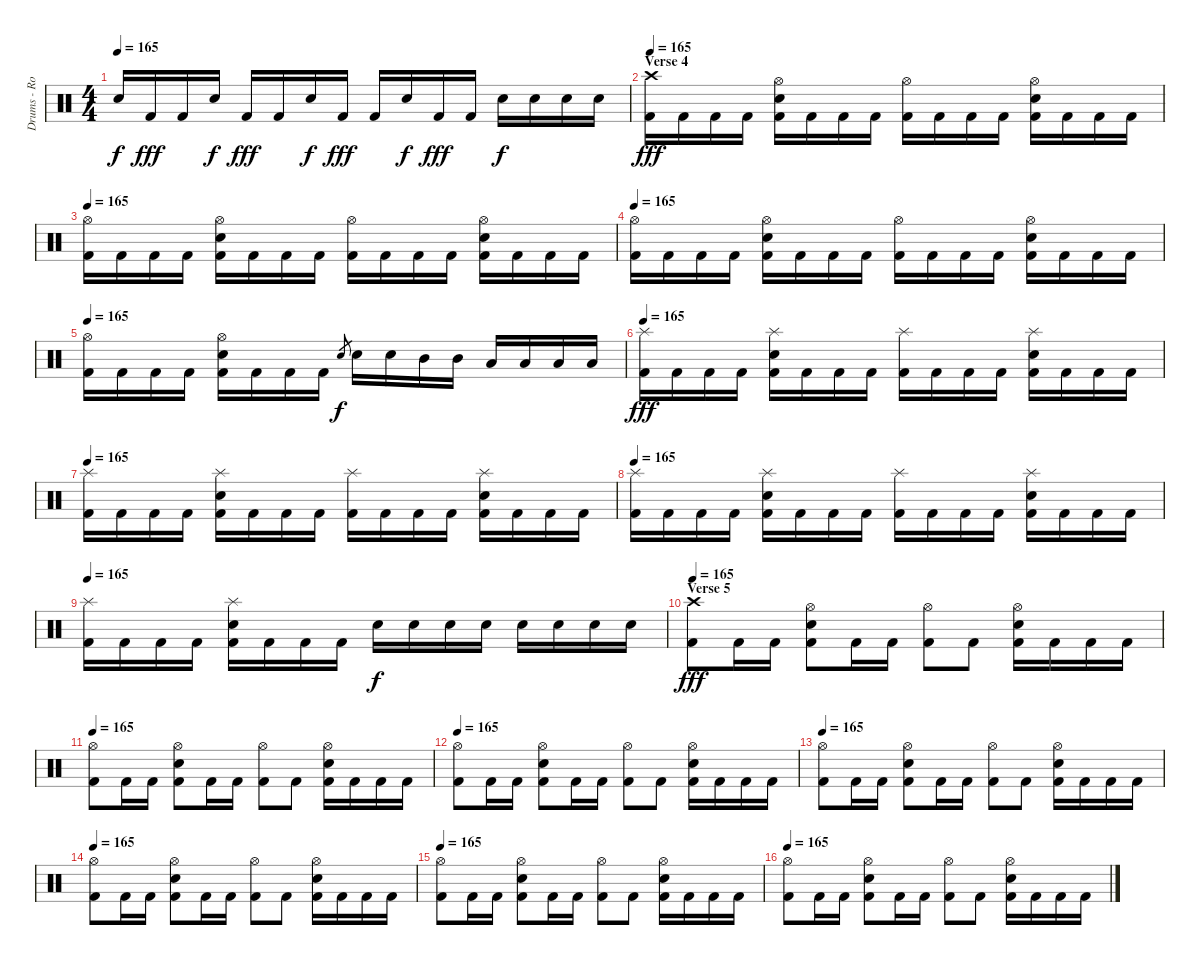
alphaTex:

\track ("Drums - Rodrigo" "Drums - Ro") {instrument percussion}
\staff {score}
\articulation defaults
\ts (4 4)
\tempo 165
\clef neutral
\ks c "Electric Snare (hit)".16{dy f} "Kick (hit) 2".16{dy fff} "Kick (hit) 2".16 "Electric Snare (hit)".16{dy f} "Kick (hit) 2".16{dy fff} "Kick (hit) 2".16 "Electric Snare (hit)".16{dy f} "Kick (hit) 2".16{dy fff} "Kick (hit) 2".16 "Electric Snare (hit)".16{dy f} "Kick (hit) 2".16{dy fff} "Kick (hit) 2".16 "Electric Snare (hit)".16{dy f} "Electric Snare (hit)".16 "Electric Snare (hit)".16 "Electric Snare (hit)".16
|
\section ("" "Verse 4")
\tempo 165
("Crash high (hit)" "Kick (hit) 2").16{dy fff} "Kick (hit) 2".16 "Kick (hit) 2".16 "Kick (hit) 2".16 ("Hi-Hat (open)" "Electric Snare (hit)" "Kick (hit) 2").16 "Kick (hit) 2".16 "Kick (hit) 2".16 "Kick (hit) 2".16 ("Hi-Hat (open)" "Kick (hit) 2").16 "Kick (hit) 2".16 "Kick (hit) 2".16 "Kick (hit) 2".16 ("Hi-Hat (open)" "Electric Snare (hit)" "Kick (hit) 2").16 "Kick (hit) 2".16 "Kick (hit) 2".16 "Kick (hit) 2".16 |
\tempo 165
("Hi-Hat (open)" "Kick (hit) 2").16 "Kick (hit) 2".16 "Kick (hit) 2".16 "Kick (hit) 2".16 ("Hi-Hat (open)" "Electric Snare (hit)" "Kick (hit) 2").16 "Kick (hit) 2".16 "Kick (hit) 2".16 "Kick (hit) 2".16 ("Hi-Hat (open)" "Kick (hit) 2").16 "Kick (hit) 2".16 "Kick (hit) 2".16 "Kick (hit) 2".16 ("Hi-Hat (open)" "Electric Snare (hit)" "Kick (hit) 2").16 "Kick (hit) 2".16 "Kick (hit) 2".16 "Kick (hit) 2".16 |
\tempo 165
("Hi-Hat (open)" "Kick (hit) 2").16 "Kick (hit) 2".16 "Kick (hit) 2".16 "Kick (hit) 2".16 ("Hi-Hat (open)" "Electric Snare (hit)" "Kick (hit) 2").16 "Kick (hit) 2".16 "Kick (hit) 2".16 "Kick (hit) 2".16 ("Hi-Hat (open)" "Kick (hit) 2").16 "Kick (hit) 2".16 "Kick (hit) 2".16 "Kick (hit) 2".16 ("Hi-Hat (open)" "Electric Snare (hit)" "Kick (hit) 2").16 "Kick (hit) 2".16 "Kick (hit) 2".16 "Kick (hit) 2".16 |
\tempo 165
("Hi-Hat (open)" "Kick (hit) 2").16 "Kick (hit) 2".16 "Kick (hit) 2".16 "Kick (hit) 2".16 ("Hi-Hat (open)" "Electric Snare (hit)" "Kick (hit) 2").16 "Kick (hit) 2".16 "Kick (hit) 2".16 "Kick (hit) 2".16 "Electric Snare (hit)".8{gr dy f} "Electric Snare (hit)".16 "Electric Snare (hit)".16 "Mid Tom (hit)".16 "Mid Tom (hit)".16 "Low Tom (hit)".16 "Low Tom (hit)".16 "Low Floor Tom (hit)".16 "Low Floor Tom (hit)".16 |
\tempo 165
("Splash (hit)" "Kick (hit) 2").16{dy fff} "Kick (hit) 2".16 "Kick (hit) 2".16 "Kick (hit) 2".16 ("Splash (hit)" "Electric Snare (hit)" "Kick (hit) 2").16 "Kick (hit) 2".16 "Kick (hit) 2".16 "Kick (hit) 2".16 ("Splash (hit)" "Kick (hit) 2").16 "Kick (hit) 2".16 "Kick (hit) 2".16 "Kick (hit) 2".16 ("Splash (hit)" "Electric Snare (hit)" "Kick (hit) 2").16 "Kick (hit) 2".16 "Kick (hit) 2".16 "Kick (hit) 2".16 |
\tempo 165
("Splash (hit)" "Kick (hit) 2").16 "Kick (hit) 2".16 "Kick (hit) 2".16 "Kick (hit) 2".16 ("Splash (hit)" "Electric Snare (hit)" "Kick (hit) 2").16 "Kick (hit) 2".16 "Kick (hit) 2".16 "Kick (hit) 2".16 ("Splash (hit)" "Kick (hit) 2").16 "Kick (hit) 2".16 "Kick (hit) 2".16 "Kick (hit) 2".16 ("Splash (hit)" "Electric Snare (hit)" "Kick (hit) 2").16 "Kick (hit) 2".16 "Kick (hit) 2".16 "Kick (hit) 2".16 |
\tempo 165
("Splash (hit)" "Kick (hit) 2").16 "Kick (hit) 2".16 "Kick (hit) 2".16 "Kick (hit) 2".16 ("Splash (hit)" "Electric Snare (hit)" "Kick (hit) 2").16 "Kick (hit) 2".16 "Kick (hit) 2".16 "Kick (hit) 2".16 ("Splash (hit)" "Kick (hit) 2").16 "Kick (hit) 2".16 "Kick (hit) 2".16 "Kick (hit) 2".16 ("Splash (hit)" "Electric Snare (hit)" "Kick (hit) 2").16 "Kick (hit) 2".16 "Kick (hit) 2".16 "Kick (hit) 2".16 |
\tempo 165
("Splash (hit)" "Kick (hit) 2").16 "Kick (hit) 2".16 "Kick (hit) 2".16 "Kick (hit) 2".16 ("Splash (hit)" "Electric Snare (hit)" "Kick (hit) 2").16 "Kick (hit) 2".16 "Kick (hit) 2".16 "Kick (hit) 2".16 "Electric Snare (hit)".16{dy f} "Electric Snare (hit)".16 "Electric Snare (hit)".16 "Electric Snare (hit)".16 "Electric Snare (hit)".16 "Electric Snare (hit)".16 "Electric Snare (hit)".16 "Electric Snare (hit)".16 |
\section ("" "Verse 5")
\tempo 165
("Crash high (hit)" "Kick (hit) 2").8{dy fff} "Kick (hit) 2".16 "Kick (hit) 2".16 ("Hi-Hat (open)" "Electric Snare (hit)" "Kick (hit) 2").8 "Kick (hit) 2".16 "Kick (hit) 2".16 ("Hi-Hat (open)" "Kick (hit) 2").8 "Kick (hit) 2".8 ("Hi-Hat (open)" "Electric Snare (hit)" "Kick (hit) 2").16 "Kick (hit) 2".16 "Kick (hit) 2".16 "Kick (hit) 2".16 |
\tempo 165
("Hi-Hat (open)" "Kick (hit) 2").8 "Kick (hit) 2".16 "Kick (hit) 2".16 ("Hi-Hat (open)" "Electric Snare (hit)" "Kick (hit) 2").8 "Kick (hit) 2".16 "Kick (hit) 2".16 ("Hi-Hat (open)" "Kick (hit) 2").8 "Kick (hit) 2".8 ("Hi-Hat (open)" "Electric Snare (hit)" "Kick (hit) 2").16 "Kick (hit) 2".16 "Kick (hit) 2".16 "Kick (hit) 2".16 |
\tempo 165
("Hi-Hat (open)" "Kick (hit) 2").8 "Kick (hit) 2".16 "Kick (hit) 2".16 ("Hi-Hat (open)" "Electric Snare (hit)" "Kick (hit) 2").8 "Kick (hit) 2".16 "Kick (hit) 2".16 ("Hi-Hat (open)" "Kick (hit) 2").8 "Kick (hit) 2".8 ("Hi-Hat (open)" "Electric Snare (hit)" "Kick (hit) 2").16 "Kick (hit) 2".16 "Kick (hit) 2".16 "Kick (hit) 2".16 |
\tempo 165
("Hi-Hat (open)" "Kick (hit) 2").8 "Kick (hit) 2".16 "Kick (hit) 2".16 ("Hi-Hat (open)" "Electric Snare (hit)" "Kick (hit) 2").8 "Kick (hit) 2".16 "Kick (hit) 2".16 ("Hi-Hat (open)" "Kick (hit) 2").8 "Kick (hit) 2".8 ("Hi-Hat (open)" "Electric Snare (hit)" "Kick (hit) 2").16 "Kick (hit) 2".16 "Kick (hit) 2".16 "Kick (hit) 2".16 |
\tempo 165
("Hi-Hat (open)" "Kick (hit) 2").8 "Kick (hit) 2".16 "Kick (hit) 2".16 ("Hi-Hat (open)" "Electric Snare (hit)" "Kick (hit) 2").8 "Kick (hit) 2".16 "Kick (hit) 2".16 ("Hi-Hat (open)" "Kick (hit) 2").8 "Kick (hit) 2".8 ("Hi-Hat (open)" "Electric Snare (hit)" "Kick (hit) 2").16 "Kick (hit) 2".16 "Kick (hit) 2".16 "Kick (hit) 2".16 |
\tempo 165
("Hi-Hat (open)" "Kick (hit) 2").8 "Kick (hit) 2".16 "Kick (hit) 2".16 ("Hi-Hat (open)" "Electric Snare (hit)" "Kick (hit) 2").8 "Kick (hit) 2".16 "Kick (hit) 2".16 ("Hi-Hat (open)" "Kick (hit) 2").8 "Kick (hit) 2".8 ("Hi-Hat (open)" "Electric Snare (hit)" "Kick (hit) 2").16 "Kick (hit) 2".16 "Kick (hit) 2".16 "Kick (hit) 2".16 |
\tempo 165
("Hi-Hat (open)" "Kick (hit) 2").8 "Kick (hit) 2".16 "Kick (hit) 2".16 ("Hi-Hat (open)" "Electric Snare (hit)" "Kick (hit) 2").8 "Kick (hit) 2".16 "Kick (hit) 2".16 ("Hi-Hat (open)" "Kick (hit) 2").8 "Kick (hit) 2".8 ("Hi-Hat (open)" "Electric Snare (hit)" "Kick (hit) 2").16 "Kick (hit) 2".16 "Kick (hit) 2".16 "Kick (hit) 2".16
